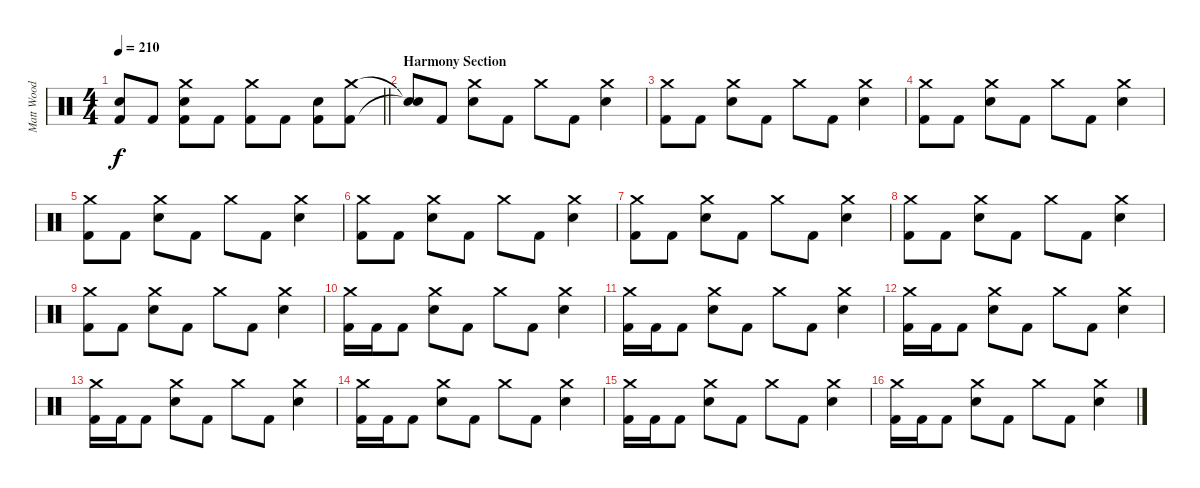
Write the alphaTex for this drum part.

\track ("Matt Wood" "Matt Wood") {instrument percussion}
\staff {score}
\articulation defaults
\ts (4 4)
\tempo 210
\clef neutral
\barLineRight lightlight
\ks c
("Snare (hit)"{t} "Kick (hit) 2"{t}).8{dy f} "Kick (hit) 2".8 ("Crash medium (hit)" "Snare (hit) 2" "Kick (hit) 2").8 "Kick (hit) 2".8 ("Crash medium (hit)" "Kick (hit) 2").8 "Kick (hit) 2".8 ("Snare (hit) 2" "Kick (hit) 2").8 ("Crash medium (hit)" "Kick (hit) 2").8 |
\section ("" "Harmony Section")
("Snare (hit)"{t} "Snare (hit)"{t}).8 "Kick (hit) 2".8 ("Crash medium (hit)" "Snare (hit) 2").8 "Kick (hit) 2".8 "Crash medium (hit)".8 "Kick (hit) 2".8 ("Crash medium (hit)" "Snare (hit) 2").4 |
("Crash medium (hit)" "Kick (hit) 2").8 "Kick (hit) 2".8 ("Crash medium (hit)" "Snare (hit) 2").8 "Kick (hit) 2".8 "Crash medium (hit)".8 "Kick (hit) 2".8 ("Crash medium (hit)" "Snare (hit) 2").4 |
("Crash medium (hit)" "Kick (hit) 2").8 "Kick (hit) 2".8 ("Crash medium (hit)" "Snare (hit) 2").8 "Kick (hit) 2".8 "Crash medium (hit)".8 "Kick (hit) 2".8 ("Crash medium (hit)" "Snare (hit) 2").4 |
("Crash medium (hit)" "Kick (hit) 2").8 "Kick (hit) 2".8 ("Crash medium (hit)" "Snare (hit) 2").8 "Kick (hit) 2".8 "Crash medium (hit)".8 "Kick (hit) 2".8 ("Crash medium (hit)" "Snare (hit) 2").4 |
("Crash medium (hit)" "Kick (hit) 2").8 "Kick (hit) 2".8 ("Crash medium (hit)" "Snare (hit) 2").8 "Kick (hit) 2".8 "Crash medium (hit)".8 "Kick (hit) 2".8 ("Crash medium (hit)" "Snare (hit) 2").4 |
("Crash medium (hit)" "Kick (hit) 2").8 "Kick (hit) 2".8 ("Crash medium (hit)" "Snare (hit) 2").8 "Kick (hit) 2".8 "Crash medium (hit)".8 "Kick (hit) 2".8 ("Crash medium (hit)" "Snare (hit) 2").4 |
("Crash medium (hit)" "Kick (hit) 2").8 "Kick (hit) 2".8 ("Crash medium (hit)" "Snare (hit) 2").8 "Kick (hit) 2".8 "Crash medium (hit)".8 "Kick (hit) 2".8 ("Crash medium (hit)" "Snare (hit) 2").4 |
("Crash medium (hit)" "Kick (hit) 2").8 "Kick (hit) 2".8 ("Crash medium (hit)" "Snare (hit) 2").8 "Kick (hit) 2".8 "Crash medium (hit)".8 "Kick (hit) 2".8 ("Crash medium (hit)" "Snare (hit) 2").4 |
("Crash medium (hit)" "Kick (hit) 2").16 "Kick (hit) 2".16 "Kick (hit) 2".8 ("Crash medium (hit)" "Snare (hit) 2").8 "Kick (hit) 2".8 "Crash medium (hit)".8 "Kick (hit) 2".8 ("Crash medium (hit)" "Snare (hit) 2").4 |
("Crash medium (hit)" "Kick (hit) 2").16 "Kick (hit) 2".16 "Kick (hit) 2".8 ("Crash medium (hit)" "Snare (hit) 2").8 "Kick (hit) 2".8 "Crash medium (hit)".8 "Kick (hit) 2".8 ("Crash medium (hit)" "Snare (hit) 2").4 |
("Crash medium (hit)" "Kick (hit) 2").16 "Kick (hit) 2".16 "Kick (hit) 2".8 ("Crash medium (hit)" "Snare (hit) 2").8 "Kick (hit) 2".8 "Crash medium (hit)".8 "Kick (hit) 2".8 ("Crash medium (hit)" "Snare (hit) 2").4 |
("Crash medium (hit)" "Kick (hit) 2").16 "Kick (hit) 2".16 "Kick (hit) 2".8 ("Crash medium (hit)" "Snare (hit) 2").8 "Kick (hit) 2".8 "Crash medium (hit)".8 "Kick (hit) 2".8 ("Crash medium (hit)" "Snare (hit) 2").4 |
("Crash medium (hit)" "Kick (hit) 2").16 "Kick (hit) 2".16 "Kick (hit) 2".8 ("Crash medium (hit)" "Snare (hit) 2").8 "Kick (hit) 2".8 "Crash medium (hit)".8 "Kick (hit) 2".8 ("Crash medium (hit)" "Snare (hit) 2").4 |
("Crash medium (hit)" "Kick (hit) 2").16 "Kick (hit) 2".16 "Kick (hit) 2".8 ("Crash medium (hit)" "Snare (hit) 2").8 "Kick (hit) 2".8 "Crash medium (hit)".8 "Kick (hit) 2".8 ("Crash medium (hit)" "Snare (hit) 2").4 |
("Crash medium (hit)" "Kick (hit) 2").16 "Kick (hit) 2".16 "Kick (hit) 2".8 ("Crash medium (hit)" "Snare (hit) 2").8 "Kick (hit) 2".8 "Crash medium (hit)".8 "Kick (hit) 2".8 ("Crash medium (hit)" "Snare (hit) 2").4
